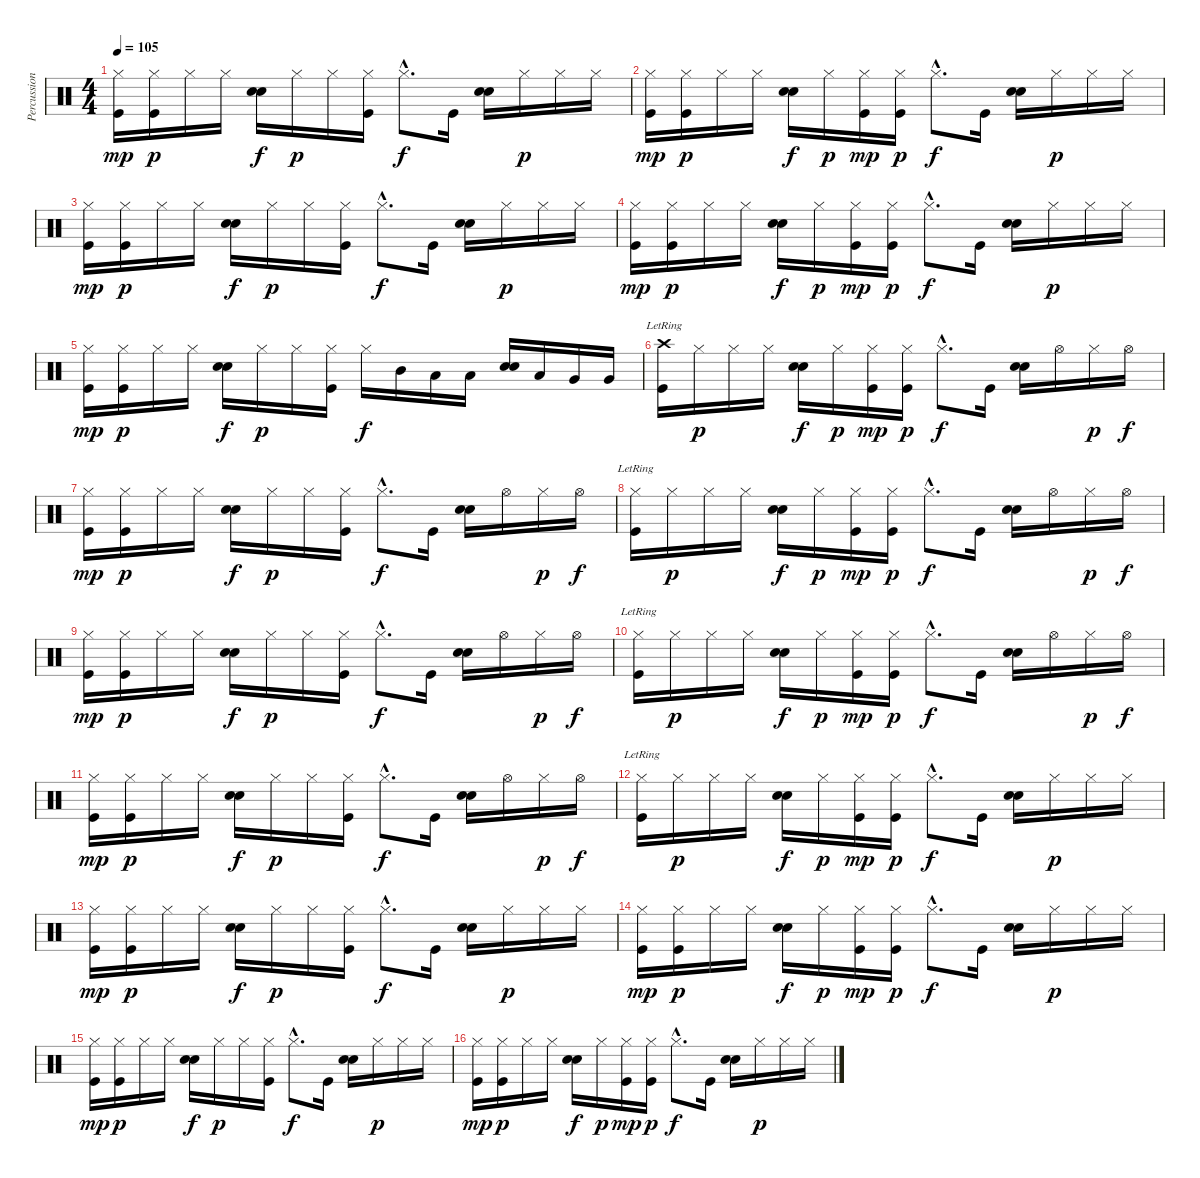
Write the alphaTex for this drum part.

\track ("Percussions" "Percussion") {instrument percussion}
\staff {score}
\articulation defaults
\ts (4 4)
\tempo 105
\clef neutral
\ks c
("Hi-Hat (closed)" "Kick (hit)").16{dy mp} ("Hi-Hat (closed)" "Kick (hit)").16{dy p} "Hi-Hat (closed)".16 "Hi-Hat (closed)".16 ("Hand Clap (hit)" "Snare (hit) 2").16{dy f} "Hi-Hat (closed)".16{dy p} "Hi-Hat (closed)".16 ("Hi-Hat (closed)" "Kick (hit)").16 "Hi-Hat (closed)"{hac}.8{d dy f} "Kick (hit)".16 ("Hand Clap (hit)" "Snare (hit) 2").16 "Hi-Hat (closed)".16{dy p} "Hi-Hat (closed)".16 "Hi-Hat (closed)".16 |
("Hi-Hat (closed)" "Kick (hit)").16{dy mp} ("Hi-Hat (closed)" "Kick (hit)").16{dy p} "Hi-Hat (closed)".16 "Hi-Hat (closed)".16 ("Hand Clap (hit)" "Snare (hit) 2").16{dy f} "Hi-Hat (closed)".16{dy p} ("Hi-Hat (closed)" "Kick (hit)").16{dy mp} ("Hi-Hat (closed)" "Kick (hit)").16{dy p} "Hi-Hat (closed)"{hac}.8{d dy f} "Kick (hit)".16 ("Hand Clap (hit)" "Snare (hit) 2").16 "Hi-Hat (closed)".16{dy p} "Hi-Hat (closed)".16 "Hi-Hat (closed)".16 |
("Hi-Hat (closed)" "Kick (hit)").16{dy mp} ("Hi-Hat (closed)" "Kick (hit)").16{dy p} "Hi-Hat (closed)".16 "Hi-Hat (closed)".16 ("Hand Clap (hit)" "Snare (hit) 2").16{dy f} "Hi-Hat (closed)".16{dy p} "Hi-Hat (closed)".16 ("Hi-Hat (closed)" "Kick (hit)").16 "Hi-Hat (closed)"{hac}.8{d dy f} "Kick (hit)".16 ("Hand Clap (hit)" "Snare (hit) 2").16 "Hi-Hat (closed)".16{dy p} "Hi-Hat (closed)".16 "Hi-Hat (closed)".16 |
("Hi-Hat (closed)" "Kick (hit)").16{dy mp} ("Hi-Hat (closed)" "Kick (hit)").16{dy p} "Hi-Hat (closed)".16 "Hi-Hat (closed)".16 ("Hand Clap (hit)" "Snare (hit) 2").16{dy f} "Hi-Hat (closed)".16{dy p} ("Hi-Hat (closed)" "Kick (hit)").16{dy mp} ("Hi-Hat (closed)" "Kick (hit)").16{dy p} "Hi-Hat (closed)"{hac}.8{d dy f} "Kick (hit)".16 ("Hand Clap (hit)" "Snare (hit) 2").16 "Hi-Hat (closed)".16{dy p} "Hi-Hat (closed)".16 "Hi-Hat (closed)".16 |
("Hi-Hat (closed)" "Kick (hit)").16{dy mp} ("Hi-Hat (closed)" "Kick (hit)").16{dy p} "Hi-Hat (closed)".16 "Hi-Hat (closed)".16 ("Hand Clap (hit)" "Snare (hit) 2").16{dy f} "Hi-Hat (closed)".16{dy p} "Hi-Hat (closed)".16 ("Hi-Hat (closed)" "Kick (hit)").16 "Hi-Hat (closed)".16{dy f} "Mid Tom (hit)".16 "Low Tom (hit)".16 "Low Tom (hit)".16 ("Hand Clap (hit)" "Snare (hit) 2").16 "Low Tom (hit)".16 "Very Low Tom (hit)".16 "Very Low Tom (hit)".16 |
("Crash high (hit)"{lr} "Kick (hit)").16 "Hi-Hat (closed)".16{dy p} "Hi-Hat (closed)".16 "Hi-Hat (closed)".16 ("Hand Clap (hit)" "Snare (hit) 2").16{dy f} "Hi-Hat (closed)".16{dy p} ("Hi-Hat (closed)" "Kick (hit)").16{dy mp} ("Hi-Hat (closed)" "Kick (hit)").16{dy p} "Hi-Hat (closed)"{hac}.8{d dy f} "Kick (hit)".16 ("Hand Clap (hit)" "Snare (hit) 2").16 "Hi-Hat (open)".16 "Hi-Hat (closed)".16{dy p} "Hi-Hat (open)".16{dy f} |
("Hi-Hat (closed)" "Kick (hit)").16{dy mp} ("Hi-Hat (closed)" "Kick (hit)").16{dy p} "Hi-Hat (closed)".16 "Hi-Hat (closed)".16 ("Hand Clap (hit)" "Snare (hit) 2").16{dy f} "Hi-Hat (closed)".16{dy p} "Hi-Hat (closed)".16 ("Hi-Hat (closed)" "Kick (hit)").16 "Hi-Hat (closed)"{hac}.8{d dy f} "Kick (hit)".16 ("Hand Clap (hit)" "Snare (hit) 2").16 "Hi-Hat (open)".16 "Hi-Hat (closed)".16{dy p} "Hi-Hat (open)".16{dy f} |
("Hi-Hat (closed)"{lr} "Kick (hit)").16 "Hi-Hat (closed)".16{dy p} "Hi-Hat (closed)".16 "Hi-Hat (closed)".16 ("Hand Clap (hit)" "Snare (hit) 2").16{dy f} "Hi-Hat (closed)".16{dy p} ("Hi-Hat (closed)" "Kick (hit)").16{dy mp} ("Hi-Hat (closed)" "Kick (hit)").16{dy p} "Hi-Hat (closed)"{hac}.8{d dy f} "Kick (hit)".16 ("Hand Clap (hit)" "Snare (hit) 2").16 "Hi-Hat (open)".16 "Hi-Hat (closed)".16{dy p} "Hi-Hat (open)".16{dy f} |
("Hi-Hat (closed)" "Kick (hit)").16{dy mp} ("Hi-Hat (closed)" "Kick (hit)").16{dy p} "Hi-Hat (closed)".16 "Hi-Hat (closed)".16 ("Hand Clap (hit)" "Snare (hit) 2").16{dy f} "Hi-Hat (closed)".16{dy p} "Hi-Hat (closed)".16 ("Hi-Hat (closed)" "Kick (hit)").16 "Hi-Hat (closed)"{hac}.8{d dy f} "Kick (hit)".16 ("Hand Clap (hit)" "Snare (hit) 2").16 "Hi-Hat (open)".16 "Hi-Hat (closed)".16{dy p} "Hi-Hat (open)".16{dy f} |
("Hi-Hat (closed)"{lr} "Kick (hit)").16 "Hi-Hat (closed)".16{dy p} "Hi-Hat (closed)".16 "Hi-Hat (closed)".16 ("Hand Clap (hit)" "Snare (hit) 2").16{dy f} "Hi-Hat (closed)".16{dy p} ("Hi-Hat (closed)" "Kick (hit)").16{dy mp} ("Hi-Hat (closed)" "Kick (hit)").16{dy p} "Hi-Hat (closed)"{hac}.8{d dy f} "Kick (hit)".16 ("Hand Clap (hit)" "Snare (hit) 2").16 "Hi-Hat (open)".16 "Hi-Hat (closed)".16{dy p} "Hi-Hat (open)".16{dy f} |
("Hi-Hat (closed)" "Kick (hit)").16{dy mp} ("Hi-Hat (closed)" "Kick (hit)").16{dy p} "Hi-Hat (closed)".16 "Hi-Hat (closed)".16 ("Hand Clap (hit)" "Snare (hit) 2").16{dy f} "Hi-Hat (closed)".16{dy p} "Hi-Hat (closed)".16 ("Hi-Hat (closed)" "Kick (hit)").16 "Hi-Hat (closed)"{hac}.8{d dy f} "Kick (hit)".16 ("Hand Clap (hit)" "Snare (hit) 2").16 "Hi-Hat (open)".16 "Hi-Hat (closed)".16{dy p} "Hi-Hat (open)".16{dy f} |
("Hi-Hat (closed)"{lr} "Kick (hit)").16 "Hi-Hat (closed)".16{dy p} "Hi-Hat (closed)".16 "Hi-Hat (closed)".16 ("Hand Clap (hit)" "Snare (hit) 2").16{dy f} "Hi-Hat (closed)".16{dy p} ("Hi-Hat (closed)" "Kick (hit)").16{dy mp} ("Hi-Hat (closed)" "Kick (hit)").16{dy p} "Hi-Hat (closed)"{hac}.8{d dy f} "Kick (hit)".16 ("Hand Clap (hit)" "Snare (hit) 2").16 "Hi-Hat (closed)".16{dy p} "Hi-Hat (closed)".16 "Hi-Hat (closed)".16 |
("Hi-Hat (closed)" "Kick (hit)").16{dy mp} ("Hi-Hat (closed)" "Kick (hit)").16{dy p} "Hi-Hat (closed)".16 "Hi-Hat (closed)".16 ("Hand Clap (hit)" "Snare (hit) 2").16{dy f} "Hi-Hat (closed)".16{dy p} "Hi-Hat (closed)".16 ("Hi-Hat (closed)" "Kick (hit)").16 "Hi-Hat (closed)"{hac}.8{d dy f} "Kick (hit)".16 ("Hand Clap (hit)" "Snare (hit) 2").16 "Hi-Hat (closed)".16{dy p} "Hi-Hat (closed)".16 "Hi-Hat (closed)".16 |
("Hi-Hat (closed)" "Kick (hit)").16{dy mp} ("Hi-Hat (closed)" "Kick (hit)").16{dy p} "Hi-Hat (closed)".16 "Hi-Hat (closed)".16 ("Hand Clap (hit)" "Snare (hit) 2").16{dy f} "Hi-Hat (closed)".16{dy p} ("Hi-Hat (closed)" "Kick (hit)").16{dy mp} ("Hi-Hat (closed)" "Kick (hit)").16{dy p} "Hi-Hat (closed)"{hac}.8{d dy f} "Kick (hit)".16 ("Hand Clap (hit)" "Snare (hit) 2").16 "Hi-Hat (closed)".16{dy p} "Hi-Hat (closed)".16 "Hi-Hat (closed)".16 |
("Hi-Hat (closed)" "Kick (hit)").16{dy mp} ("Hi-Hat (closed)" "Kick (hit)").16{dy p} "Hi-Hat (closed)".16 "Hi-Hat (closed)".16 ("Hand Clap (hit)" "Snare (hit) 2").16{dy f} "Hi-Hat (closed)".16{dy p} "Hi-Hat (closed)".16 ("Hi-Hat (closed)" "Kick (hit)").16 "Hi-Hat (closed)"{hac}.8{d dy f} "Kick (hit)".16 ("Hand Clap (hit)" "Snare (hit) 2").16 "Hi-Hat (closed)".16{dy p} "Hi-Hat (closed)".16 "Hi-Hat (closed)".16 |
("Hi-Hat (closed)" "Kick (hit)").16{dy mp} ("Hi-Hat (closed)" "Kick (hit)").16{dy p} "Hi-Hat (closed)".16 "Hi-Hat (closed)".16 ("Hand Clap (hit)" "Snare (hit) 2").16{dy f} "Hi-Hat (closed)".16{dy p} ("Hi-Hat (closed)" "Kick (hit)").16{dy mp} ("Hi-Hat (closed)" "Kick (hit)").16{dy p} "Hi-Hat (closed)"{hac}.8{d dy f} "Kick (hit)".16 ("Hand Clap (hit)" "Snare (hit) 2").16 "Hi-Hat (closed)".16{dy p} "Hi-Hat (closed)".16 "Hi-Hat (closed)".16
